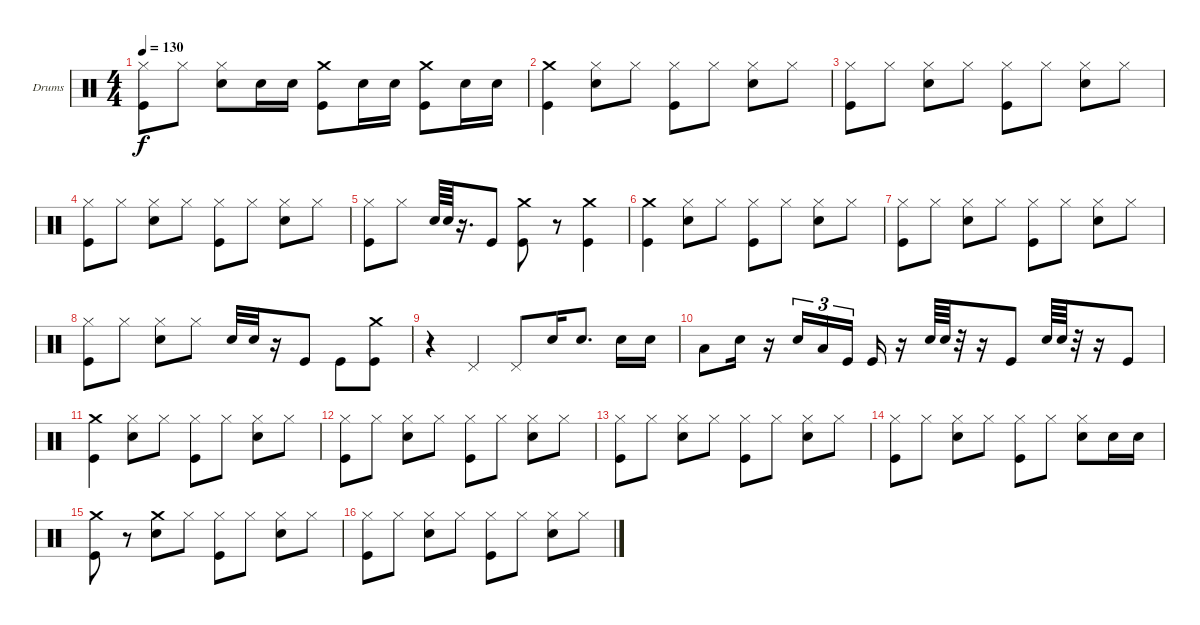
\defaultSystemsLayout 4
\bracketExtendMode groupsimilarinstruments
\firstSystemTrackNameOrientation horizontal
\otherSystemsTrackNameOrientation horizontal
\track ("Stefan Kaufmann" "Drums") {instrument percussion}
\staff {score}
\articulation defaults
\ts (4 4)
\tempo 130
\clef neutral
\ks c
("Hi-Hat (closed)" "Kick (hit)").8{dy f} "Hi-Hat (closed)".8 ("Hi-Hat (closed)" "Snare (hit) 2").8 "Snare (hit) 2".16 "Snare (hit) 2".16 ("Crash medium (hit)" "Kick (hit)").8 "Snare (hit) 2".16 "Snare (hit) 2".16 ("Crash medium (hit)" "Kick (hit)").8 "Snare (hit) 2".16 "Snare (hit) 2".16 |
("Crash medium (hit)" "Kick (hit)").4 ("Hi-Hat (closed)" "Snare (hit) 2").8 "Hi-Hat (closed)".8 ("Hi-Hat (closed)" "Kick (hit)").8 "Hi-Hat (closed)".8 ("Hi-Hat (closed)" "Snare (hit) 2").8 "Hi-Hat (closed)".8 |
("Hi-Hat (closed)" "Kick (hit)").8 "Hi-Hat (closed)".8 ("Hi-Hat (closed)" "Snare (hit) 2").8 "Hi-Hat (closed)".8 ("Hi-Hat (closed)" "Kick (hit)").8 "Hi-Hat (closed)".8 ("Hi-Hat (closed)" "Snare (hit) 2").8 "Hi-Hat (closed)".8 |
("Hi-Hat (closed)" "Kick (hit)").8 "Hi-Hat (closed)".8 ("Hi-Hat (closed)" "Snare (hit) 2").8 "Hi-Hat (closed)".8 ("Hi-Hat (closed)" "Kick (hit)").8 "Hi-Hat (closed)".8 ("Hi-Hat (closed)" "Snare (hit) 2").8 "Hi-Hat (closed)".8 |
("Hi-Hat (closed)" "Kick (hit)").8 "Hi-Hat (closed)".8 "Snare (hit) 2".64 "Snare (hit) 2".64 r.16{d} "Kick (hit)".8 ("Crash medium (hit)" "Kick (hit)").8 r.8 ("Crash medium (hit)" "Kick (hit)").4 |
("Crash medium (hit)" "Kick (hit)").4 ("Hi-Hat (closed)" "Snare (hit) 2").8 "Hi-Hat (closed)".8 ("Hi-Hat (closed)" "Kick (hit)").8 "Hi-Hat (closed)".8 ("Hi-Hat (closed)" "Snare (hit) 2").8 "Hi-Hat (closed)".8 |
("Hi-Hat (closed)" "Kick (hit)").8 "Hi-Hat (closed)".8 ("Hi-Hat (closed)" "Snare (hit) 2").8 "Hi-Hat (closed)".8 ("Hi-Hat (closed)" "Kick (hit)").8 "Hi-Hat (closed)".8 ("Hi-Hat (closed)" "Snare (hit) 2").8 "Hi-Hat (closed)".8 |
("Hi-Hat (closed)" "Kick (hit)").8 "Hi-Hat (closed)".8 ("Hi-Hat (closed)" "Snare (hit) 2").8 "Hi-Hat (closed)".8 "Snare (hit) 2".32 "Snare (hit) 2".32 r.16 "Kick (hit)".8 "Kick (hit)".8 ("Crash medium (hit)" "Kick (hit)").8 |
r.4 "Pedal Hi-Hat (hit)".4 "Pedal Hi-Hat (hit)".8 "Snare (hit) 2".16 "Snare (hit) 2".8{d} "Snare (hit) 2".16 "Snare (hit) 2".16 |
"Low Tom (hit)".8 "Snare (hit) 2".16 r.16 "Snare (hit) 2".16{tu (3 2)} "Low Tom (hit)".16{tu (3 2)} "Kick (hit)".16{tu (3 2)} "Kick (hit)".16 r.16 "Snare (hit) 2".64 "Snare (hit) 2".64 r.32 r.16 "Kick (hit)".8 "Snare (hit) 2".64 "Snare (hit) 2".64 r.32 r.16 "Kick (hit)".8 |
("Crash medium (hit)" "Kick (hit)").4 ("Hi-Hat (closed)" "Snare (hit) 2").8 "Hi-Hat (closed)".8 ("Hi-Hat (closed)" "Kick (hit)").8 "Hi-Hat (closed)".8 ("Hi-Hat (closed)" "Snare (hit) 2").8 "Hi-Hat (closed)".8 |
("Hi-Hat (closed)" "Kick (hit)").8 "Hi-Hat (closed)".8 ("Hi-Hat (closed)" "Snare (hit) 2").8 "Hi-Hat (closed)".8 ("Hi-Hat (closed)" "Kick (hit)").8 "Hi-Hat (closed)".8 ("Hi-Hat (closed)" "Snare (hit) 2").8 "Hi-Hat (closed)".8 |
("Hi-Hat (closed)" "Kick (hit)").8 "Hi-Hat (closed)".8 ("Hi-Hat (closed)" "Snare (hit) 2").8 "Hi-Hat (closed)".8 ("Hi-Hat (closed)" "Kick (hit)").8 "Hi-Hat (closed)".8 ("Hi-Hat (closed)" "Snare (hit) 2").8 "Hi-Hat (closed)".8 |
("Hi-Hat (closed)" "Kick (hit)").8 "Hi-Hat (closed)".8 ("Hi-Hat (closed)" "Snare (hit) 2").8 "Hi-Hat (closed)".8 ("Hi-Hat (closed)" "Kick (hit)").8 "Hi-Hat (closed)".8 ("Hi-Hat (closed)" "Snare (hit) 2").8 "Snare (hit) 2".16 "Snare (hit) 2".16 |
("Crash medium (hit)" "Kick (hit)").8 r.8 ("Crash medium (hit)" "Snare (hit) 2").8 "Hi-Hat (closed)".8 ("Hi-Hat (closed)" "Kick (hit)").8 "Hi-Hat (closed)".8 ("Hi-Hat (closed)" "Snare (hit) 2").8 "Hi-Hat (closed)".8 |
("Hi-Hat (closed)" "Kick (hit)").8 "Hi-Hat (closed)".8 ("Hi-Hat (closed)" "Snare (hit) 2").8 "Hi-Hat (closed)".8 ("Hi-Hat (closed)" "Kick (hit)").8 "Hi-Hat (closed)".8 ("Hi-Hat (closed)" "Snare (hit) 2").8 "Hi-Hat (closed)".8
